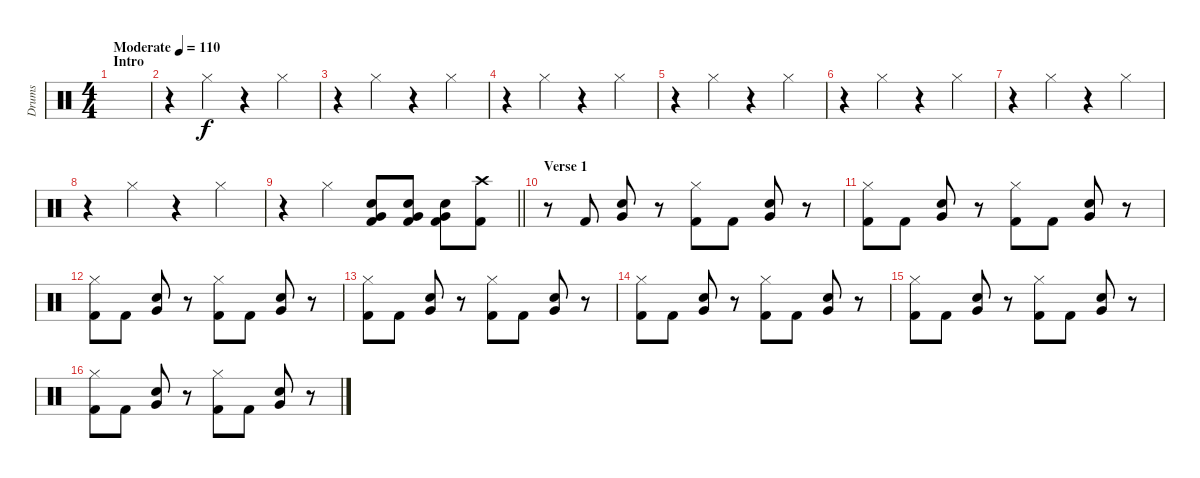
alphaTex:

\track ("Drums" "Drums") {instrument percussion}
\staff {score}
\articulation defaults
\ts (4 4)
\section ("" "Intro")
\tempo (110 "Moderate")
\clef neutral
\ks c
|
r.4 "Hi-Hat (closed)".4 r.4 "Hi-Hat (closed)".4 |
r.4 "Hi-Hat (closed)".4 r.4 "Hi-Hat (closed)".4 |
r.4 "Hi-Hat (closed)".4 r.4 "Hi-Hat (closed)".4 |
r.4 "Hi-Hat (closed)".4 r.4 "Hi-Hat (closed)".4 |
r.4 "Hi-Hat (closed)".4 r.4 "Hi-Hat (closed)".4 |
r.4 "Hi-Hat (closed)".4 r.4 "Hi-Hat (closed)".4 |
r.4 "Hi-Hat (closed)".4 r.4 "Hi-Hat (closed)".4 |
\barLineRight lightlight
r.4 "Hi-Hat (closed)".4 ("Electric Snare (hit)" "Very Low Tom (hit)" "Kick (hit) 2").8 ("Electric Snare (hit)" "Very Low Tom (hit)" "Kick (hit) 2").8 ("Electric Snare (hit)" "Very Low Tom (hit)" "Kick (hit) 2").8 ("Crash high (hit)" "Kick (hit) 2").8 |
\section ("" "Verse 1")
r.8 "Kick (hit) 2".8 ("Snare (hit) 2" "Very Low Tom (hit)").8 r.8 ("Hi-Hat (closed)" "Kick (hit) 2").8 "Kick (hit) 2".8 ("Snare (hit) 2" "Very Low Tom (hit)").8 r.8 |
("Hi-Hat (closed)" "Kick (hit) 2").8 "Kick (hit) 2".8 ("Snare (hit) 2" "Very Low Tom (hit)").8 r.8 ("Hi-Hat (closed)" "Kick (hit) 2").8 "Kick (hit) 2".8 ("Snare (hit) 2" "Very Low Tom (hit)").8 r.8 |
("Hi-Hat (closed)" "Kick (hit) 2").8 "Kick (hit) 2".8 ("Snare (hit) 2" "Very Low Tom (hit)").8 r.8 ("Hi-Hat (closed)" "Kick (hit) 2").8 "Kick (hit) 2".8 ("Snare (hit) 2" "Very Low Tom (hit)").8 r.8 |
("Hi-Hat (closed)" "Kick (hit) 2").8 "Kick (hit) 2".8 ("Snare (hit) 2" "Very Low Tom (hit)").8 r.8 ("Hi-Hat (closed)" "Kick (hit) 2").8 "Kick (hit) 2".8 ("Snare (hit) 2" "Very Low Tom (hit)").8 r.8 |
("Hi-Hat (closed)" "Kick (hit) 2").8 "Kick (hit) 2".8 ("Snare (hit) 2" "Very Low Tom (hit)").8 r.8 ("Hi-Hat (closed)" "Kick (hit) 2").8 "Kick (hit) 2".8 ("Snare (hit) 2" "Very Low Tom (hit)").8 r.8 |
("Hi-Hat (closed)" "Kick (hit) 2").8 "Kick (hit) 2".8 ("Snare (hit) 2" "Very Low Tom (hit)").8 r.8 ("Hi-Hat (closed)" "Kick (hit) 2").8 "Kick (hit) 2".8 ("Snare (hit) 2" "Very Low Tom (hit)").8 r.8 |
("Hi-Hat (closed)" "Kick (hit) 2").8 "Kick (hit) 2".8 ("Snare (hit) 2" "Very Low Tom (hit)").8 r.8 ("Hi-Hat (closed)" "Kick (hit) 2").8 "Kick (hit) 2".8 ("Snare (hit) 2" "Very Low Tom (hit)").8 r.8
